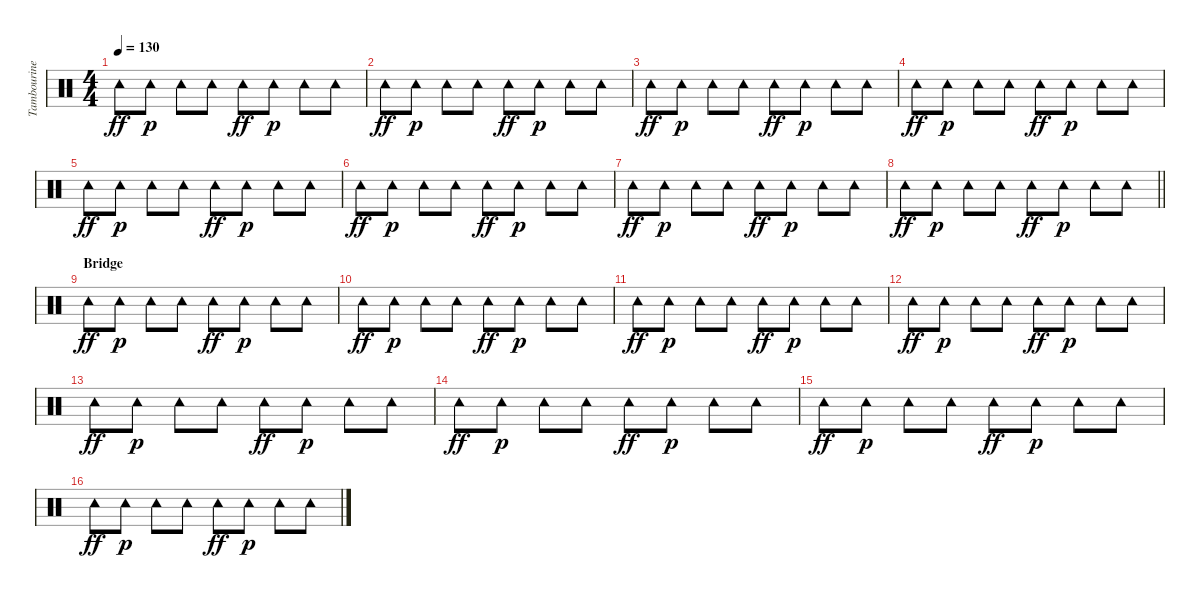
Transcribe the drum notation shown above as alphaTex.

\track ("Tambourine" "Tambourine") {instrument percussion}
\staff {score}
\articulation defaults
\ts (4 4)
\tempo 130
\clef neutral
\ks c "Tambourine (hit)".8{dy ff} "Tambourine (hit)".8{dy p} "Tambourine (hit)".8 "Tambourine (hit)".8 "Tambourine (hit)".8{dy ff} "Tambourine (hit)".8{dy p} "Tambourine (hit)".8 "Tambourine (hit)".8
|
"Tambourine (hit)".8{dy ff} "Tambourine (hit)".8{dy p} "Tambourine (hit)".8 "Tambourine (hit)".8 "Tambourine (hit)".8{dy ff} "Tambourine (hit)".8{dy p} "Tambourine (hit)".8 "Tambourine (hit)".8 |
"Tambourine (hit)".8{dy ff} "Tambourine (hit)".8{dy p} "Tambourine (hit)".8 "Tambourine (hit)".8 "Tambourine (hit)".8{dy ff} "Tambourine (hit)".8{dy p} "Tambourine (hit)".8 "Tambourine (hit)".8 |
"Tambourine (hit)".8{dy ff} "Tambourine (hit)".8{dy p} "Tambourine (hit)".8 "Tambourine (hit)".8 "Tambourine (hit)".8{dy ff} "Tambourine (hit)".8{dy p} "Tambourine (hit)".8 "Tambourine (hit)".8 |
"Tambourine (hit)".8{dy ff} "Tambourine (hit)".8{dy p} "Tambourine (hit)".8 "Tambourine (hit)".8 "Tambourine (hit)".8{dy ff} "Tambourine (hit)".8{dy p} "Tambourine (hit)".8 "Tambourine (hit)".8 |
"Tambourine (hit)".8{dy ff} "Tambourine (hit)".8{dy p} "Tambourine (hit)".8 "Tambourine (hit)".8 "Tambourine (hit)".8{dy ff} "Tambourine (hit)".8{dy p} "Tambourine (hit)".8 "Tambourine (hit)".8 |
"Tambourine (hit)".8{dy ff} "Tambourine (hit)".8{dy p} "Tambourine (hit)".8 "Tambourine (hit)".8 "Tambourine (hit)".8{dy ff} "Tambourine (hit)".8{dy p} "Tambourine (hit)".8 "Tambourine (hit)".8 |
\barLineRight lightlight "Tambourine (hit)".8{dy ff} "Tambourine (hit)".8{dy p} "Tambourine (hit)".8 "Tambourine (hit)".8 "Tambourine (hit)".8{dy ff} "Tambourine (hit)".8{dy p} "Tambourine (hit)".8 "Tambourine (hit)".8
|
\section ("" "Bridge")
"Tambourine (hit)".8{dy ff} "Tambourine (hit)".8{dy p} "Tambourine (hit)".8 "Tambourine (hit)".8 "Tambourine (hit)".8{dy ff} "Tambourine (hit)".8{dy p} "Tambourine (hit)".8 "Tambourine (hit)".8 |
"Tambourine (hit)".8{dy ff} "Tambourine (hit)".8{dy p} "Tambourine (hit)".8 "Tambourine (hit)".8 "Tambourine (hit)".8{dy ff} "Tambourine (hit)".8{dy p} "Tambourine (hit)".8 "Tambourine (hit)".8 |
"Tambourine (hit)".8{dy ff} "Tambourine (hit)".8{dy p} "Tambourine (hit)".8 "Tambourine (hit)".8 "Tambourine (hit)".8{dy ff} "Tambourine (hit)".8{dy p} "Tambourine (hit)".8 "Tambourine (hit)".8 |
"Tambourine (hit)".8{dy ff} "Tambourine (hit)".8{dy p} "Tambourine (hit)".8 "Tambourine (hit)".8 "Tambourine (hit)".8{dy ff} "Tambourine (hit)".8{dy p} "Tambourine (hit)".8 "Tambourine (hit)".8 |
"Tambourine (hit)".8{dy ff} "Tambourine (hit)".8{dy p} "Tambourine (hit)".8 "Tambourine (hit)".8 "Tambourine (hit)".8{dy ff} "Tambourine (hit)".8{dy p} "Tambourine (hit)".8 "Tambourine (hit)".8 |
"Tambourine (hit)".8{dy ff} "Tambourine (hit)".8{dy p} "Tambourine (hit)".8 "Tambourine (hit)".8 "Tambourine (hit)".8{dy ff} "Tambourine (hit)".8{dy p} "Tambourine (hit)".8 "Tambourine (hit)".8 |
"Tambourine (hit)".8{dy ff} "Tambourine (hit)".8{dy p} "Tambourine (hit)".8 "Tambourine (hit)".8 "Tambourine (hit)".8{dy ff} "Tambourine (hit)".8{dy p} "Tambourine (hit)".8 "Tambourine (hit)".8 |
"Tambourine (hit)".8{dy ff} "Tambourine (hit)".8{dy p} "Tambourine (hit)".8 "Tambourine (hit)".8 "Tambourine (hit)".8{dy ff} "Tambourine (hit)".8{dy p} "Tambourine (hit)".8 "Tambourine (hit)".8
